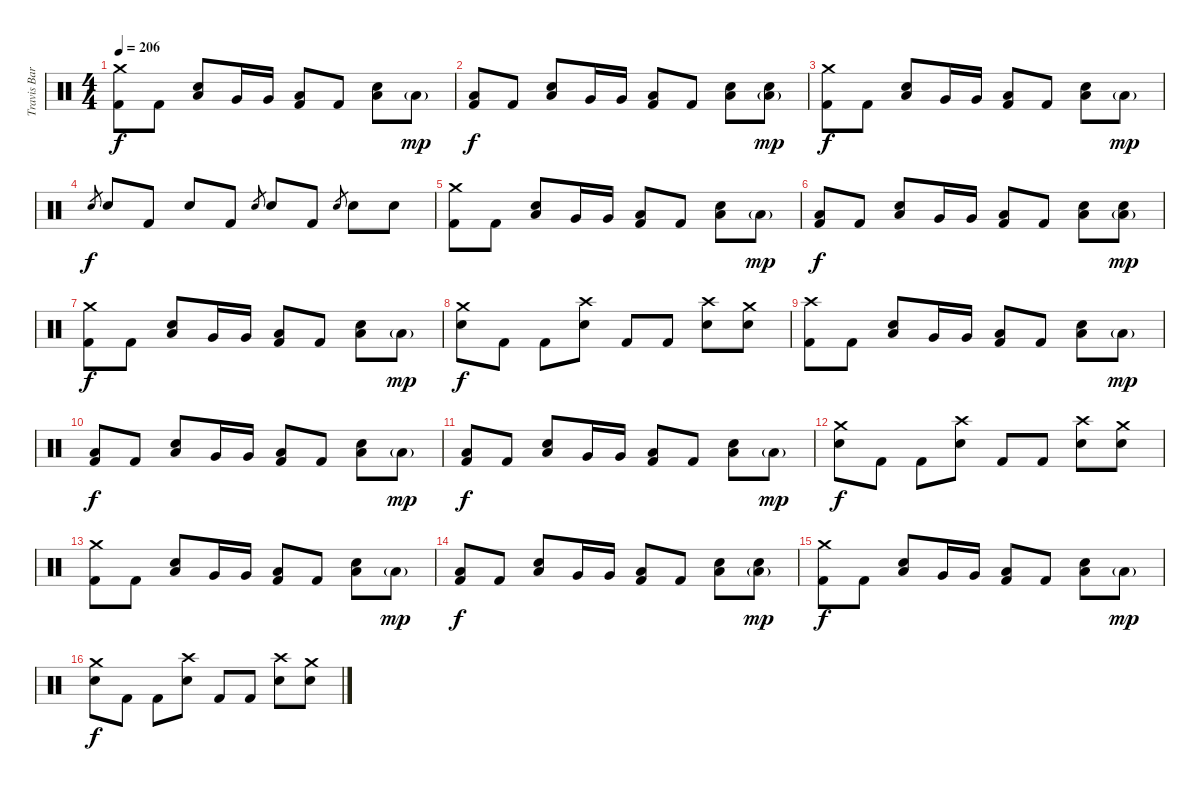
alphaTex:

\track ("Travis Barker - Drums" "Travis Bar") {instrument percussion}
\staff {score}
\articulation defaults
\ts (4 4)
\tempo 206
\clef neutral
\ks c
("Crash medium (hit)" "Kick (hit) 2").8{dy f} "Kick (hit) 2".8 ("Low Floor Tom (hit)" "Electric Snare (hit)").8 "Very Low Tom (hit)".16 "Very Low Tom (hit)".16 ("Low Floor Tom (hit)" "Kick (hit) 2").8 "Kick (hit) 2".8 ("Low Floor Tom (hit)" "Electric Snare (hit)").8 "Low Floor Tom (hit)"{g}.8{dy mp} |
("Low Floor Tom (hit)" "Kick (hit) 2").8{dy f} "Kick (hit) 2".8 ("Low Floor Tom (hit)" "Electric Snare (hit)").8 "Very Low Tom (hit)".16 "Very Low Tom (hit)".16 ("Low Floor Tom (hit)" "Kick (hit) 2").8 "Kick (hit) 2".8 ("Low Floor Tom (hit)" "Electric Snare (hit)").8 ("Low Floor Tom (hit)"{g} "Electric Snare (hit)").8{dy mp} |
("Crash medium (hit)" "Kick (hit) 2").8{dy f} "Kick (hit) 2".8 ("Low Floor Tom (hit)" "Electric Snare (hit)").8 "Very Low Tom (hit)".16 "Very Low Tom (hit)".16 ("Low Floor Tom (hit)" "Kick (hit) 2").8 "Kick (hit) 2".8 ("Low Floor Tom (hit)" "Electric Snare (hit)").8 "Low Floor Tom (hit)"{g}.8{dy mp} |
"Electric Snare (hit)".8{gr dy f} "Electric Snare (hit)".8 "Kick (hit) 2".8 "Electric Snare (hit)".8 "Kick (hit) 2".8 "Electric Snare (hit)".8{gr} "Electric Snare (hit)".8 "Kick (hit) 2".8 "Electric Snare (hit)".8{gr} "Electric Snare (hit)".8 "Electric Snare (hit)".8 |
("Crash medium (hit)" "Kick (hit) 2").8 "Kick (hit) 2".8 ("Low Floor Tom (hit)" "Electric Snare (hit)").8 "Very Low Tom (hit)".16 "Very Low Tom (hit)".16 ("Low Floor Tom (hit)" "Kick (hit) 2").8 "Kick (hit) 2".8 ("Low Floor Tom (hit)" "Electric Snare (hit)").8 "Low Floor Tom (hit)"{g}.8{dy mp} |
("Low Floor Tom (hit)" "Kick (hit) 2").8{dy f} "Kick (hit) 2".8 ("Low Floor Tom (hit)" "Electric Snare (hit)").8 "Very Low Tom (hit)".16 "Very Low Tom (hit)".16 ("Low Floor Tom (hit)" "Kick (hit) 2").8 "Kick (hit) 2".8 ("Low Floor Tom (hit)" "Electric Snare (hit)").8 ("Low Floor Tom (hit)"{g} "Electric Snare (hit)").8{dy mp} |
("Crash medium (hit)" "Kick (hit) 2").8{dy f} "Kick (hit) 2".8 ("Low Floor Tom (hit)" "Electric Snare (hit)").8 "Very Low Tom (hit)".16 "Very Low Tom (hit)".16 ("Low Floor Tom (hit)" "Kick (hit) 2").8 "Kick (hit) 2".8 ("Low Floor Tom (hit)" "Electric Snare (hit)").8 "Low Floor Tom (hit)"{g}.8{dy mp} |
("Crash medium (hit)" "Electric Snare (hit)").8{dy f} "Kick (hit) 2".8 "Kick (hit) 2".8 ("Crash high (hit)" "Electric Snare (hit)").8 "Kick (hit) 2".8 "Kick (hit) 2".8 ("Crash high (hit)" "Electric Snare (hit)").8 ("Crash medium (hit)" "Electric Snare (hit)").8 |
("Crash high (hit)" "Kick (hit) 2").8 "Kick (hit) 2".8 ("Low Floor Tom (hit)" "Electric Snare (hit)").8 "Very Low Tom (hit)".16 "Very Low Tom (hit)".16 ("Low Floor Tom (hit)" "Kick (hit) 2").8 "Kick (hit) 2".8 ("Low Floor Tom (hit)" "Electric Snare (hit)").8 "Low Floor Tom (hit)"{g}.8{dy mp} |
("Low Floor Tom (hit)" "Kick (hit) 2").8{dy f} "Kick (hit) 2".8 ("Low Floor Tom (hit)" "Electric Snare (hit)").8 "Very Low Tom (hit)".16 "Very Low Tom (hit)".16 ("Low Floor Tom (hit)" "Kick (hit) 2").8 "Kick (hit) 2".8 ("Low Floor Tom (hit)" "Electric Snare (hit)").8 "Low Floor Tom (hit)"{g}.8{dy mp} |
("Low Floor Tom (hit)" "Kick (hit) 2").8{dy f} "Kick (hit) 2".8 ("Low Floor Tom (hit)" "Electric Snare (hit)").8 "Very Low Tom (hit)".16 "Very Low Tom (hit)".16 ("Low Floor Tom (hit)" "Kick (hit) 2").8 "Kick (hit) 2".8 ("Low Floor Tom (hit)" "Electric Snare (hit)").8 "Low Floor Tom (hit)"{g}.8{dy mp} |
("Crash medium (hit)" "Electric Snare (hit)").8{dy f} "Kick (hit) 2".8 "Kick (hit) 2".8 ("Crash high (hit)" "Electric Snare (hit)").8 "Kick (hit) 2".8 "Kick (hit) 2".8 ("Crash high (hit)" "Electric Snare (hit)").8 ("Crash medium (hit)" "Electric Snare (hit)").8 |
("Crash medium (hit)" "Kick (hit) 2").8 "Kick (hit) 2".8 ("Low Floor Tom (hit)" "Electric Snare (hit)").8 "Very Low Tom (hit)".16 "Very Low Tom (hit)".16 ("Low Floor Tom (hit)" "Kick (hit) 2").8 "Kick (hit) 2".8 ("Low Floor Tom (hit)" "Electric Snare (hit)").8 "Low Floor Tom (hit)"{g}.8{dy mp} |
("Low Floor Tom (hit)" "Kick (hit) 2").8{dy f} "Kick (hit) 2".8 ("Low Floor Tom (hit)" "Electric Snare (hit)").8 "Very Low Tom (hit)".16 "Very Low Tom (hit)".16 ("Low Floor Tom (hit)" "Kick (hit) 2").8 "Kick (hit) 2".8 ("Low Floor Tom (hit)" "Electric Snare (hit)").8 ("Low Floor Tom (hit)"{g} "Electric Snare (hit)").8{dy mp} |
("Crash medium (hit)" "Kick (hit) 2").8{dy f} "Kick (hit) 2".8 ("Low Floor Tom (hit)" "Electric Snare (hit)").8 "Very Low Tom (hit)".16 "Very Low Tom (hit)".16 ("Low Floor Tom (hit)" "Kick (hit) 2").8 "Kick (hit) 2".8 ("Low Floor Tom (hit)" "Electric Snare (hit)").8 "Low Floor Tom (hit)"{g}.8{dy mp} |
("Crash medium (hit)" "Electric Snare (hit)").8{dy f} "Kick (hit) 2".8 "Kick (hit) 2".8 ("Crash high (hit)" "Electric Snare (hit)").8 "Kick (hit) 2".8 "Kick (hit) 2".8 ("Crash high (hit)" "Electric Snare (hit)").8 ("Crash medium (hit)" "Electric Snare (hit)").8
